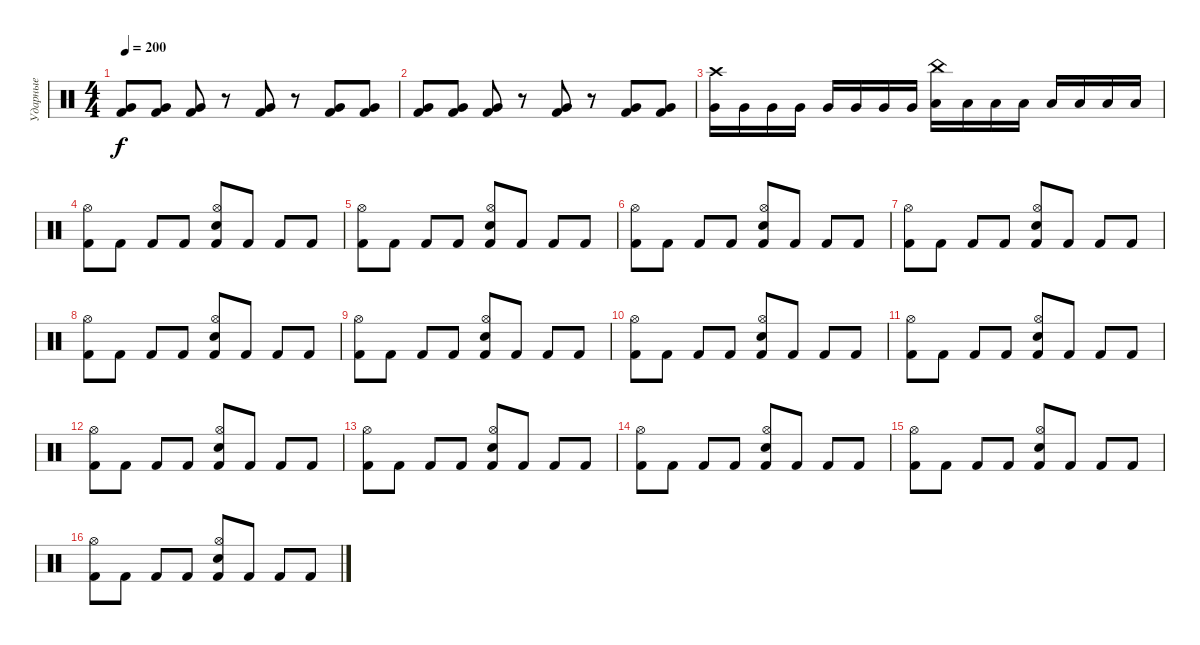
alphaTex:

\track ("Ударные" "Ударные") {instrument percussion}
\staff {score}
\articulation defaults
\ts (4 4)
\tempo 200
\clef neutral
\ks c
("Kick (hit) 2" "Very Low Tom (hit)").8{dy f} ("Kick (hit) 2" "Very Low Tom (hit)").8 ("Kick (hit) 2" "Very Low Tom (hit)").8 r.8 ("Kick (hit) 2" "Very Low Tom (hit)").8 r.8 ("Kick (hit) 2" "Very Low Tom (hit)").8 ("Kick (hit) 2" "Very Low Tom (hit)").8 |
("Kick (hit) 2" "Very Low Tom (hit)").8 ("Kick (hit) 2" "Very Low Tom (hit)").8 ("Kick (hit) 2" "Very Low Tom (hit)").8 r.8 ("Kick (hit) 2" "Very Low Tom (hit)").8 r.8 ("Kick (hit) 2" "Very Low Tom (hit)").8 ("Kick (hit) 2" "Very Low Tom (hit)").8 |
("Very Low Tom (hit)" "Crash high (hit)").16 "Very Low Tom (hit)".16 "Very Low Tom (hit)".16 "Very Low Tom (hit)".16 "Very Low Tom (hit)".16 "Very Low Tom (hit)".16 "Very Low Tom (hit)".16 "Very Low Tom (hit)".16 ("Low Floor Tom (hit)" "China (hit)").16 "Low Floor Tom (hit)".16 "Low Floor Tom (hit)".16 "Low Floor Tom (hit)".16 "Low Floor Tom (hit)".16 "Low Floor Tom (hit)".16 "Low Floor Tom (hit)".16 "Low Floor Tom (hit)".16 |
("Kick (hit) 2" "Hi-Hat (open)").8 "Kick (hit) 2".8 "Kick (hit) 2".8 "Kick (hit) 2".8 ("Kick (hit) 2" "Electric Snare (hit)" "Hi-Hat (open)").8 "Kick (hit) 2".8 "Kick (hit) 2".8 "Kick (hit) 2".8 |
("Kick (hit) 2" "Hi-Hat (open)").8 "Kick (hit) 2".8 "Kick (hit) 2".8 "Kick (hit) 2".8 ("Kick (hit) 2" "Electric Snare (hit)" "Hi-Hat (open)").8 "Kick (hit) 2".8 "Kick (hit) 2".8 "Kick (hit) 2".8 |
("Kick (hit) 2" "Hi-Hat (open)").8 "Kick (hit) 2".8 "Kick (hit) 2".8 "Kick (hit) 2".8 ("Kick (hit) 2" "Electric Snare (hit)" "Hi-Hat (open)").8 "Kick (hit) 2".8 "Kick (hit) 2".8 "Kick (hit) 2".8 |
("Kick (hit) 2" "Hi-Hat (open)").8 "Kick (hit) 2".8 "Kick (hit) 2".8 "Kick (hit) 2".8 ("Kick (hit) 2" "Electric Snare (hit)" "Hi-Hat (open)").8 "Kick (hit) 2".8 "Kick (hit) 2".8 "Kick (hit) 2".8 |
("Kick (hit) 2" "Hi-Hat (open)").8 "Kick (hit) 2".8 "Kick (hit) 2".8 "Kick (hit) 2".8 ("Kick (hit) 2" "Electric Snare (hit)" "Hi-Hat (open)").8 "Kick (hit) 2".8 "Kick (hit) 2".8 "Kick (hit) 2".8 |
("Kick (hit) 2" "Hi-Hat (open)").8 "Kick (hit) 2".8 "Kick (hit) 2".8 "Kick (hit) 2".8 ("Kick (hit) 2" "Electric Snare (hit)" "Hi-Hat (open)").8 "Kick (hit) 2".8 "Kick (hit) 2".8 "Kick (hit) 2".8 |
("Kick (hit) 2" "Hi-Hat (open)").8 "Kick (hit) 2".8 "Kick (hit) 2".8 "Kick (hit) 2".8 ("Kick (hit) 2" "Electric Snare (hit)" "Hi-Hat (open)").8 "Kick (hit) 2".8 "Kick (hit) 2".8 "Kick (hit) 2".8 |
("Kick (hit) 2" "Hi-Hat (open)").8 "Kick (hit) 2".8 "Kick (hit) 2".8 "Kick (hit) 2".8 ("Kick (hit) 2" "Electric Snare (hit)" "Hi-Hat (open)").8 "Kick (hit) 2".8 "Kick (hit) 2".8 "Kick (hit) 2".8 |
("Kick (hit) 2" "Hi-Hat (open)").8 "Kick (hit) 2".8 "Kick (hit) 2".8 "Kick (hit) 2".8 ("Kick (hit) 2" "Electric Snare (hit)" "Hi-Hat (open)").8 "Kick (hit) 2".8 "Kick (hit) 2".8 "Kick (hit) 2".8 |
("Kick (hit) 2" "Hi-Hat (open)").8 "Kick (hit) 2".8 "Kick (hit) 2".8 "Kick (hit) 2".8 ("Kick (hit) 2" "Electric Snare (hit)" "Hi-Hat (open)").8 "Kick (hit) 2".8 "Kick (hit) 2".8 "Kick (hit) 2".8 |
("Kick (hit) 2" "Hi-Hat (open)").8 "Kick (hit) 2".8 "Kick (hit) 2".8 "Kick (hit) 2".8 ("Kick (hit) 2" "Electric Snare (hit)" "Hi-Hat (open)").8 "Kick (hit) 2".8 "Kick (hit) 2".8 "Kick (hit) 2".8 |
("Kick (hit) 2" "Hi-Hat (open)").8 "Kick (hit) 2".8 "Kick (hit) 2".8 "Kick (hit) 2".8 ("Kick (hit) 2" "Electric Snare (hit)" "Hi-Hat (open)").8 "Kick (hit) 2".8 "Kick (hit) 2".8 "Kick (hit) 2".8 |
("Kick (hit) 2" "Hi-Hat (open)").8 "Kick (hit) 2".8 "Kick (hit) 2".8 "Kick (hit) 2".8 ("Kick (hit) 2" "Electric Snare (hit)" "Hi-Hat (open)").8 "Kick (hit) 2".8 "Kick (hit) 2".8 "Kick (hit) 2".8
